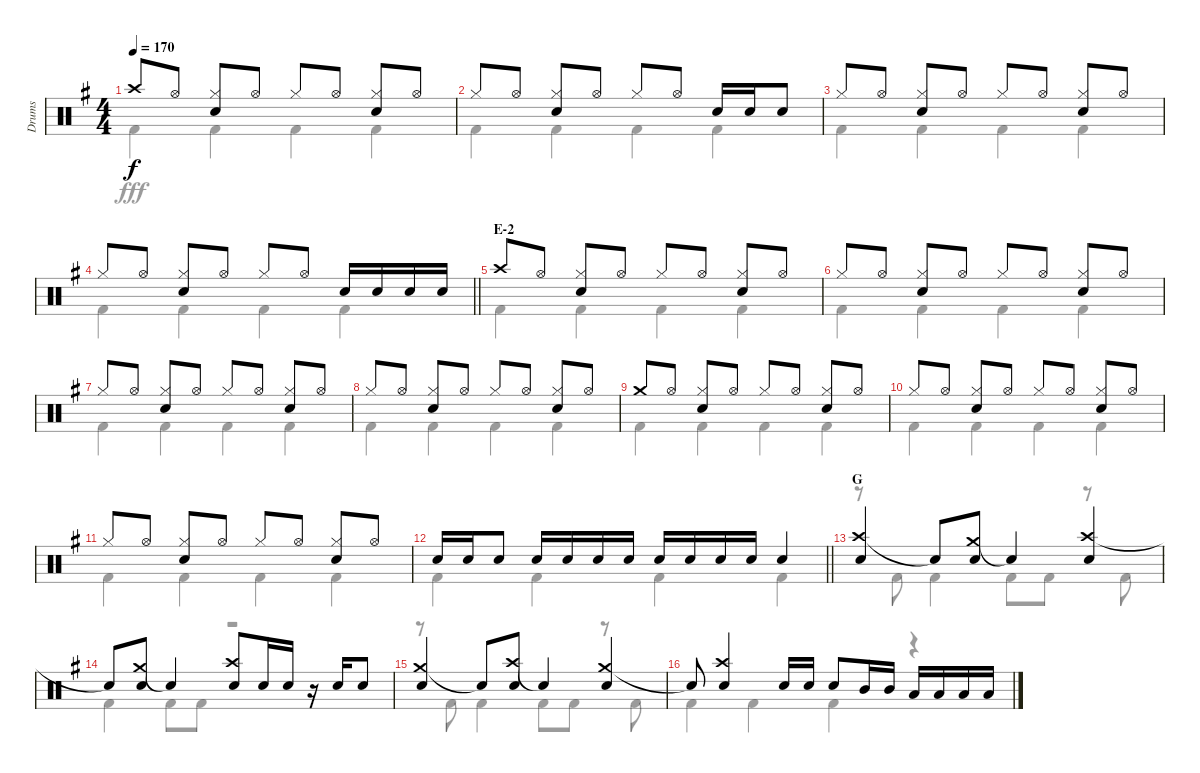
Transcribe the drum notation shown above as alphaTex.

\track ("Drums" "Drums") {instrument percussion}
\staff {score}
\articulation defaults
\voice
\ts (4 4)
\tempo 170
\clef neutral
\ks g "Crash high (hit)".8{dy f} "Hi-Hat (open)".8
("Hi-Hat (closed)" "Snare (hit) 2").8 "Hi-Hat (open)".8 "Hi-Hat (closed)".8 "Hi-Hat (open)".8 ("Hi-Hat (closed)" "Snare (hit) 2").8 "Hi-Hat (open)".8 |
"Hi-Hat (closed)".8 "Hi-Hat (open)".8 ("Hi-Hat (closed)" "Snare (hit) 2").8 "Hi-Hat (open)".8 "Hi-Hat (closed)".8 "Hi-Hat (open)".8 "Snare (hit) 2".16 "Snare (hit) 2".16 "Snare (hit) 2".8 |
"Hi-Hat (closed)".8 "Hi-Hat (open)".8 ("Hi-Hat (closed)" "Snare (hit) 2").8 "Hi-Hat (open)".8 "Hi-Hat (closed)".8 "Hi-Hat (open)".8 ("Hi-Hat (closed)" "Snare (hit) 2").8 "Hi-Hat (open)".8 |
\barLineRight lightlight "Hi-Hat (closed)".8 "Hi-Hat (open)".8
("Hi-Hat (closed)" "Snare (hit) 2").8 "Hi-Hat (open)".8 "Hi-Hat (closed)".8 "Hi-Hat (open)".8 "Snare (hit) 2".16 "Snare (hit) 2".16 "Snare (hit) 2".16 "Snare (hit) 2".16 |
\section ("" "E-2")
"Crash high (hit)".8 "Hi-Hat (open)".8 ("Hi-Hat (closed)" "Snare (hit) 2").8 "Hi-Hat (open)".8 "Hi-Hat (closed)".8 "Hi-Hat (open)".8 ("Hi-Hat (closed)" "Snare (hit) 2").8 "Hi-Hat (open)".8 |
"Hi-Hat (closed)".8 "Hi-Hat (open)".8 ("Hi-Hat (closed)" "Snare (hit) 2").8 "Hi-Hat (open)".8 "Hi-Hat (closed)".8 "Hi-Hat (open)".8 ("Hi-Hat (closed)" "Snare (hit) 2").8 "Hi-Hat (open)".8 |
"Hi-Hat (closed)".8 "Hi-Hat (open)".8 ("Hi-Hat (closed)" "Snare (hit) 2").8 "Hi-Hat (open)".8 "Hi-Hat (closed)".8 "Hi-Hat (open)".8 ("Hi-Hat (closed)" "Snare (hit) 2").8 "Hi-Hat (open)".8 |
"Hi-Hat (closed)".8 "Hi-Hat (open)".8 ("Hi-Hat (closed)" "Snare (hit) 2").8 "Hi-Hat (open)".8 "Hi-Hat (closed)".8 "Hi-Hat (open)".8 ("Hi-Hat (closed)" "Snare (hit) 2").8 "Hi-Hat (open)".8 |
"Crash medium (hit)".8 "Hi-Hat (open)".8 ("Hi-Hat (closed)" "Snare (hit) 2").8 "Hi-Hat (open)".8 "Hi-Hat (closed)".8 "Hi-Hat (open)".8 ("Hi-Hat (closed)" "Snare (hit) 2").8 "Hi-Hat (open)".8 |
"Hi-Hat (closed)".8 "Hi-Hat (open)".8 ("Hi-Hat (closed)" "Snare (hit) 2").8 "Hi-Hat (open)".8 "Hi-Hat (closed)".8 "Hi-Hat (open)".8 ("Hi-Hat (closed)" "Snare (hit) 2").8 "Hi-Hat (open)".8 |
"Hi-Hat (closed)".8 "Hi-Hat (open)".8 ("Hi-Hat (closed)" "Snare (hit) 2").8 "Hi-Hat (open)".8 "Hi-Hat (closed)".8 "Hi-Hat (open)".8 ("Hi-Hat (closed)" "Snare (hit) 2").8 "Hi-Hat (open)".8 |
\barLineRight lightlight "Snare (hit) 2".16 "Snare (hit) 2".16 "Snare (hit) 2".8 "Snare (hit) 2".16 "Snare (hit) 2".16 "Snare (hit) 2".16 "Snare (hit) 2".16 "Snare (hit) 2".16 "Snare (hit) 2".16 "Snare (hit) 2".16 "Snare (hit) 2".16 "Snare (hit) 2".4
|
\section ("" "G")
("Crash high (hit)" "Snare (hit) 2").4 "Snare (hit)"{t}.8 ("Crash medium (hit)" "Snare (hit) 2").8 "Snare (hit)"{t}.4 ("Crash high (hit)" "Snare (hit) 2").4 |
"Snare (hit)"{t}.8 ("Crash medium (hit)" "Snare (hit) 2").8 "Snare (hit)"{t}.4 ("Crash high (hit)" "Snare (hit) 2").8 "Snare (hit) 2".16 "Snare (hit) 2".16 r.16 "Snare (hit) 2".16 "Snare (hit) 2".8 |
("Crash medium (hit)" "Snare (hit) 2").4 "Snare (hit)"{t}.8 ("Crash high (hit)" "Snare (hit) 2").8 "Snare (hit)"{t}.4 ("Crash medium (hit)" "Snare (hit) 2").4 |
"Snare (hit)"{t}.8 ("Crash high (hit)" "Snare (hit) 2").4 "Snare (hit) 2".16 "Snare (hit) 2".16 "Snare (hit) 2".8 "Mid Tom (hit)".16 "Mid Tom (hit)".16 "Low Tom (hit)".16 "Low Tom (hit)".16 "Low Tom (hit)".16 "Low Tom (hit)".16
\voice
\clef neutral
\ottava regular
\simile none
\ks g "Kick (hit) 2".4{dy fff} "Kick (hit) 2".4 "Kick (hit) 2".4 "Kick (hit) 2".4
|
"Kick (hit) 2".4 "Kick (hit) 2".4 "Kick (hit) 2".4 "Kick (hit) 2".4 |
"Kick (hit) 2".4 "Kick (hit) 2".4 "Kick (hit) 2".4 "Kick (hit) 2".4 |
\barLineRight lightlight "Kick (hit) 2".4 "Kick (hit) 2".4 "Kick (hit) 2".4 "Kick (hit) 2".4
|
"Kick (hit) 2".4 "Kick (hit) 2".4 "Kick (hit) 2".4 "Kick (hit) 2".4 |
"Kick (hit) 2".4 "Kick (hit) 2".4 "Kick (hit) 2".4 "Kick (hit) 2".4 |
"Kick (hit) 2".4 "Kick (hit) 2".4 "Kick (hit) 2".4 "Kick (hit) 2".4 |
"Kick (hit) 2".4 "Kick (hit) 2".4 "Kick (hit) 2".4 "Kick (hit) 2".4 |
"Kick (hit) 2".4 "Kick (hit) 2".4 "Kick (hit) 2".4 "Kick (hit) 2".4 |
"Kick (hit) 2".4 "Kick (hit) 2".4 "Kick (hit) 2".4 "Kick (hit) 2".4 |
"Kick (hit) 2".4 "Kick (hit) 2".4 "Kick (hit) 2".4 "Kick (hit) 2".4 |
\barLineRight lightlight "Kick (hit) 2".4 "Kick (hit) 2".4 "Kick (hit) 2".4 "Kick (hit) 2".4
|
r.8 "Kick (hit) 2".8 "Kick (hit) 2".4 "Kick (hit) 2".8 "Kick (hit) 2".8 r.8 "Kick (hit) 2".8 |
"Kick (hit) 2".4 "Kick (hit) 2".8 "Kick (hit) 2".8 r.2 |
r.8 "Kick (hit) 2".8 "Kick (hit) 2".4 "Kick (hit) 2".8 "Kick (hit) 2".8 r.8 "Kick (hit) 2".8 |
"Kick (hit) 2".4 "Kick (hit) 2".4 "Kick (hit) 2".4 r.4
